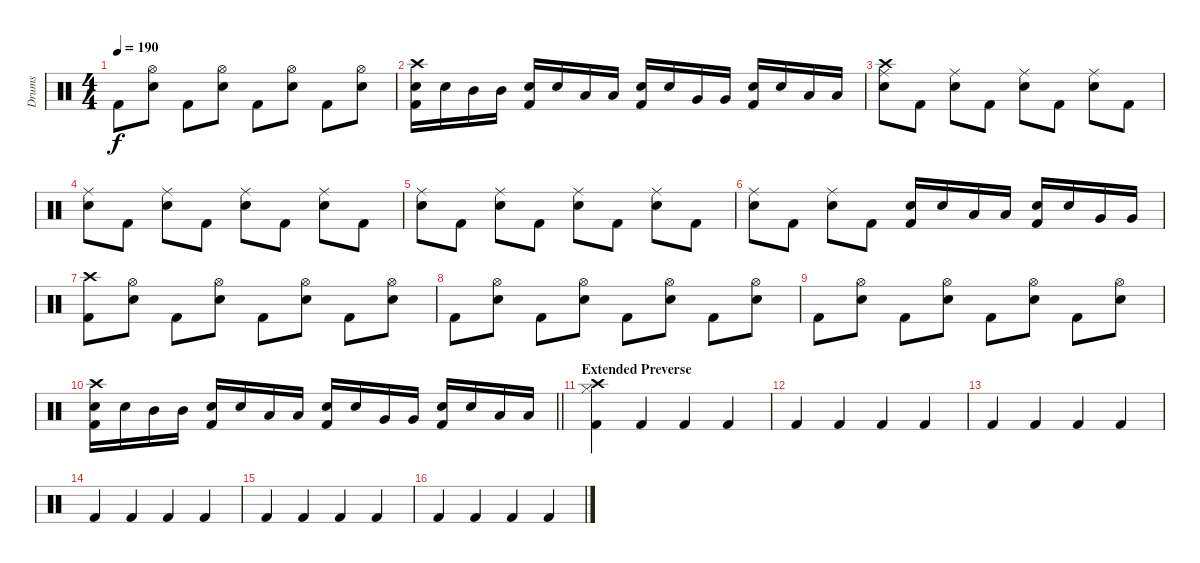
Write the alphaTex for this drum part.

\track ("Drums" "Drums") {instrument percussion}
\staff {score}
\articulation defaults
\ts (4 4)
\tempo 190
\clef neutral
\ks c "Kick (hit) 2".8{dy f}
("Hi-Hat (open)" "Snare (hit) 2").8 "Kick (hit) 2".8 ("Hi-Hat (open)" "Snare (hit) 2").8 "Kick (hit) 2".8 ("Hi-Hat (open)" "Snare (hit) 2").8 "Kick (hit) 2".8 ("Hi-Hat (open)" "Snare (hit) 2").8 |
("Crash high (hit)" "Snare (hit) 2" "Kick (hit) 2").16 "Snare (hit) 2".16 "Mid Tom (hit)".16 "Mid Tom (hit)".16 ("Snare (hit) 2" "Kick (hit) 2").16 "Snare (hit) 2".16 "Low Tom (hit)".16 "Low Tom (hit)".16 ("Snare (hit) 2" "Kick (hit) 2").16 "Snare (hit) 2".16 "Very Low Tom (hit)".16 "Very Low Tom (hit)".16 ("Snare (hit) 2" "Kick (hit) 2").16 "Snare (hit) 2".16 "Low Floor Tom (hit)".16 "Low Floor Tom (hit)".16 |
("Crash high (hit)" "Ride (middle)" "Snare (hit) 2").8 "Kick (hit) 2".8 ("Ride (middle)" "Snare (hit) 2").8 "Kick (hit) 2".8 ("Ride (middle)" "Snare (hit) 2").8 "Kick (hit) 2".8 ("Ride (middle)" "Snare (hit) 2").8 "Kick (hit) 2".8 |
("Ride (middle)" "Snare (hit) 2").8 "Kick (hit) 2".8 ("Ride (middle)" "Snare (hit) 2").8 "Kick (hit) 2".8 ("Ride (middle)" "Snare (hit) 2").8 "Kick (hit) 2".8 ("Ride (middle)" "Snare (hit) 2").8 "Kick (hit) 2".8 |
("Ride (middle)" "Snare (hit) 2").8 "Kick (hit) 2".8 ("Ride (middle)" "Snare (hit) 2").8 "Kick (hit) 2".8 ("Ride (middle)" "Snare (hit) 2").8 "Kick (hit) 2".8 ("Ride (middle)" "Snare (hit) 2").8 "Kick (hit) 2".8 |
("Ride (middle)" "Snare (hit) 2").8 "Kick (hit) 2".8 ("Ride (middle)" "Snare (hit) 2").8 "Kick (hit) 2".8 ("Snare (hit) 2" "Kick (hit) 2").16 "Snare (hit) 2".16 "Low Tom (hit)".16 "Low Tom (hit)".16 ("Snare (hit) 2" "Kick (hit) 2").16 "Snare (hit) 2".16 "Very Low Tom (hit)".16 "Very Low Tom (hit)".16 |
("Crash high (hit)" "Kick (hit) 2").8 ("Hi-Hat (open)" "Snare (hit) 2").8 "Kick (hit) 2".8 ("Hi-Hat (open)" "Snare (hit) 2").8 "Kick (hit) 2".8 ("Hi-Hat (open)" "Snare (hit) 2").8 "Kick (hit) 2".8 ("Hi-Hat (open)" "Snare (hit) 2").8 |
"Kick (hit) 2".8 ("Hi-Hat (open)" "Snare (hit) 2").8 "Kick (hit) 2".8 ("Hi-Hat (open)" "Snare (hit) 2").8 "Kick (hit) 2".8 ("Hi-Hat (open)" "Snare (hit) 2").8 "Kick (hit) 2".8 ("Hi-Hat (open)" "Snare (hit) 2").8 |
"Kick (hit) 2".8 ("Hi-Hat (open)" "Snare (hit) 2").8 "Kick (hit) 2".8 ("Hi-Hat (open)" "Snare (hit) 2").8 "Kick (hit) 2".8 ("Hi-Hat (open)" "Snare (hit) 2").8 "Kick (hit) 2".8 ("Hi-Hat (open)" "Snare (hit) 2").8 |
\barLineRight lightlight
("Crash high (hit)" "Snare (hit) 2" "Kick (hit) 2").16 "Snare (hit) 2".16 "Mid Tom (hit)".16 "Mid Tom (hit)".16 ("Snare (hit) 2" "Kick (hit) 2").16 "Snare (hit) 2".16 "Low Tom (hit)".16 "Low Tom (hit)".16 ("Snare (hit) 2" "Kick (hit) 2").16 "Snare (hit) 2".16 "Very Low Tom (hit)".16 "Very Low Tom (hit)".16 ("Snare (hit) 2" "Kick (hit) 2").16 "Snare (hit) 2".16 "Low Floor Tom (hit)".16 "Low Floor Tom (hit)".16 |
\section ("" "Extended Preverse")
("Crash high (hit)" "Hi-Hat (closed)" "Kick (hit) 2").4 "Kick (hit) 2".4 "Kick (hit) 2".4 "Kick (hit) 2".4 |
"Kick (hit) 2".4 "Kick (hit) 2".4 "Kick (hit) 2".4 "Kick (hit) 2".4 |
"Kick (hit) 2".4 "Kick (hit) 2".4 "Kick (hit) 2".4 "Kick (hit) 2".4 |
"Kick (hit) 2".4 "Kick (hit) 2".4 "Kick (hit) 2".4 "Kick (hit) 2".4 |
"Kick (hit) 2".4 "Kick (hit) 2".4 "Kick (hit) 2".4 "Kick (hit) 2".4 |
"Kick (hit) 2".4 "Kick (hit) 2".4 "Kick (hit) 2".4 "Kick (hit) 2".4
